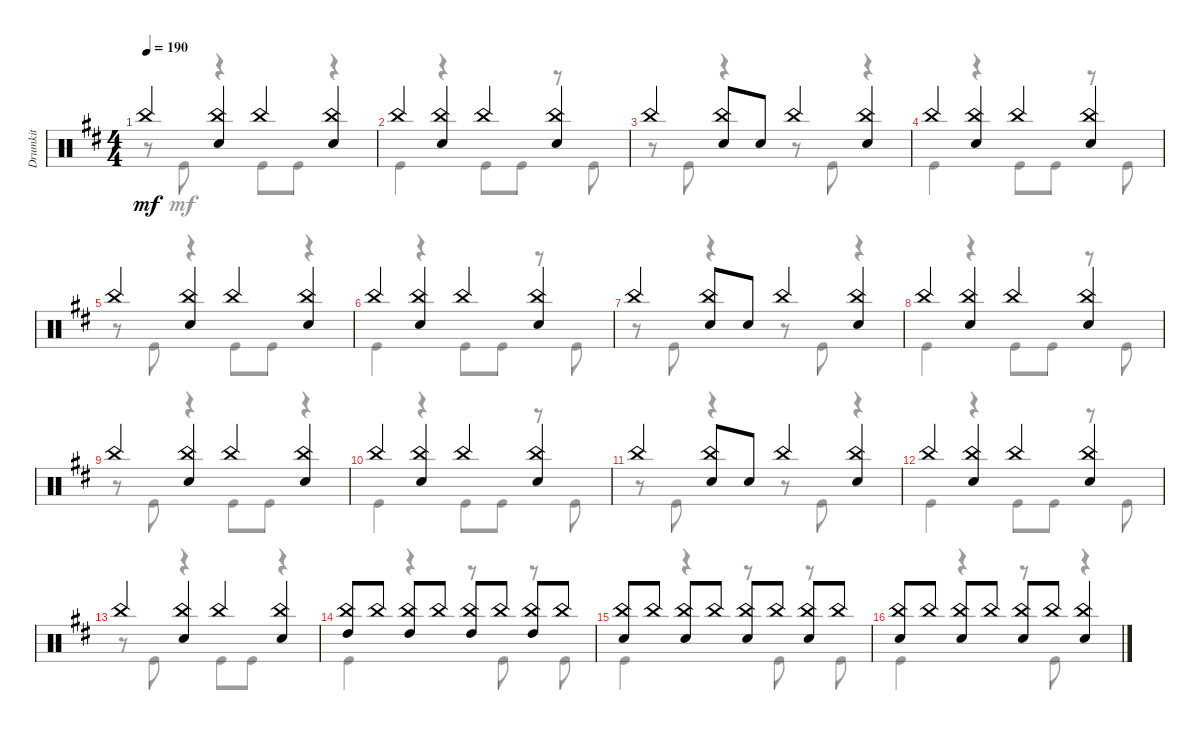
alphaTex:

\track ("Drumkit" "Drumkit") {instrument percussion}
\staff {score}
\articulation defaults
\voice
\ts (4 4)
\tempo 190
\clef neutral
\ks d "China (hit)".4{dy mf}
("China (hit)" "Snare (hit) 2").4 "China (hit)".4 ("China (hit)" "Snare (hit) 2").4 |
"China (hit)".4 ("China (hit)" "Snare (hit) 2").4 "China (hit)".4 ("China (hit)" "Snare (hit) 2").4 |
"China (hit)".4 ("China (hit)" "Snare (hit) 2").8 "Snare (hit) 2".8 "China (hit)".4 ("China (hit)" "Snare (hit) 2").4 |
"China (hit)".4 ("China (hit)" "Snare (hit) 2").4 "China (hit)".4 ("China (hit)" "Snare (hit) 2").4 |
"China (hit)".4 ("China (hit)" "Snare (hit) 2").4 "China (hit)".4 ("China (hit)" "Snare (hit) 2").4 |
"China (hit)".4 ("China (hit)" "Snare (hit) 2").4 "China (hit)".4 ("China (hit)" "Snare (hit) 2").4 |
"China (hit)".4 ("China (hit)" "Snare (hit) 2").8 "Snare (hit) 2".8 "China (hit)".4 ("China (hit)" "Snare (hit) 2").4 |
"China (hit)".4 ("China (hit)" "Snare (hit) 2").4 "China (hit)".4 ("China (hit)" "Snare (hit) 2").4 |
"China (hit)".4 ("China (hit)" "Snare (hit) 2").4 "China (hit)".4 ("China (hit)" "Snare (hit) 2").4 |
"China (hit)".4 ("China (hit)" "Snare (hit) 2").4 "China (hit)".4 ("China (hit)" "Snare (hit) 2").4 |
"China (hit)".4 ("China (hit)" "Snare (hit) 2").8 "Snare (hit) 2".8 "China (hit)".4 ("China (hit)" "Snare (hit) 2").4 |
"China (hit)".4 ("China (hit)" "Snare (hit) 2").4 "China (hit)".4 ("China (hit)" "Snare (hit) 2").4 |
"China (hit)".4 ("China (hit)" "Snare (hit) 2").4 "China (hit)".4 ("China (hit)" "Snare (hit) 2").4 |
("China (hit)" "High Tom (hit)").8 "China (hit)".8 ("China (hit)" "High Tom (hit)").8 "China (hit)".8 ("China (hit)" "High Tom (hit)").8 "China (hit)".8 ("China (hit)" "High Tom (hit)").8 "China (hit)".8 |
("China (hit)" "Snare (hit) 2").8 "China (hit)".8 ("China (hit)" "Snare (hit) 2").8 "China (hit)".8 ("China (hit)" "Snare (hit) 2").8 "China (hit)".8 ("China (hit)" "Snare (hit) 2").8 "China (hit)".8 |
("China (hit)" "Snare (hit) 2").8 "China (hit)".8 ("China (hit)" "Snare (hit) 2").8 "China (hit)".8 ("China (hit)" "Snare (hit) 2").8 "China (hit)".8 ("China (hit)" "Snare (hit) 2").4
\voice
\clef neutral
\ottava regular
\simile none
\ks d
r.8{dy mf} "Kick (hit)".8 r.4 "Kick (hit)".8 "Kick (hit)".8 r.4 |
"Kick (hit)".4 r.4 "Kick (hit)".8 "Kick (hit)".8 r.8 "Kick (hit)".8 |
r.8 "Kick (hit)".8 r.4 r.8 "Kick (hit)".8 r.4 |
"Kick (hit)".4 r.4 "Kick (hit)".8 "Kick (hit)".8 r.8 "Kick (hit)".8 |
r.8 "Kick (hit)".8 r.4 "Kick (hit)".8 "Kick (hit)".8 r.4 |
"Kick (hit)".4 r.4 "Kick (hit)".8 "Kick (hit)".8 r.8 "Kick (hit)".8 |
r.8 "Kick (hit)".8 r.4 r.8 "Kick (hit)".8 r.4 |
"Kick (hit)".4 r.4 "Kick (hit)".8 "Kick (hit)".8 r.8 "Kick (hit)".8 |
r.8 "Kick (hit)".8 r.4 "Kick (hit)".8 "Kick (hit)".8 r.4 |
"Kick (hit)".4 r.4 "Kick (hit)".8 "Kick (hit)".8 r.8 "Kick (hit)".8 |
r.8 "Kick (hit)".8 r.4 r.8 "Kick (hit)".8 r.4 |
"Kick (hit)".4 r.4 "Kick (hit)".8 "Kick (hit)".8 r.8 "Kick (hit)".8 |
r.8 "Kick (hit)".8 r.4 "Kick (hit)".8 "Kick (hit)".8 r.4 |
"Kick (hit)".4 r.4 r.8 "Kick (hit)".8 r.8 "Kick (hit)".8 |
"Kick (hit)".4 r.4 r.8 "Kick (hit)".8 r.8 "Kick (hit)".8 |
"Kick (hit)".4 r.4 r.8 "Kick (hit)".8 r.4
